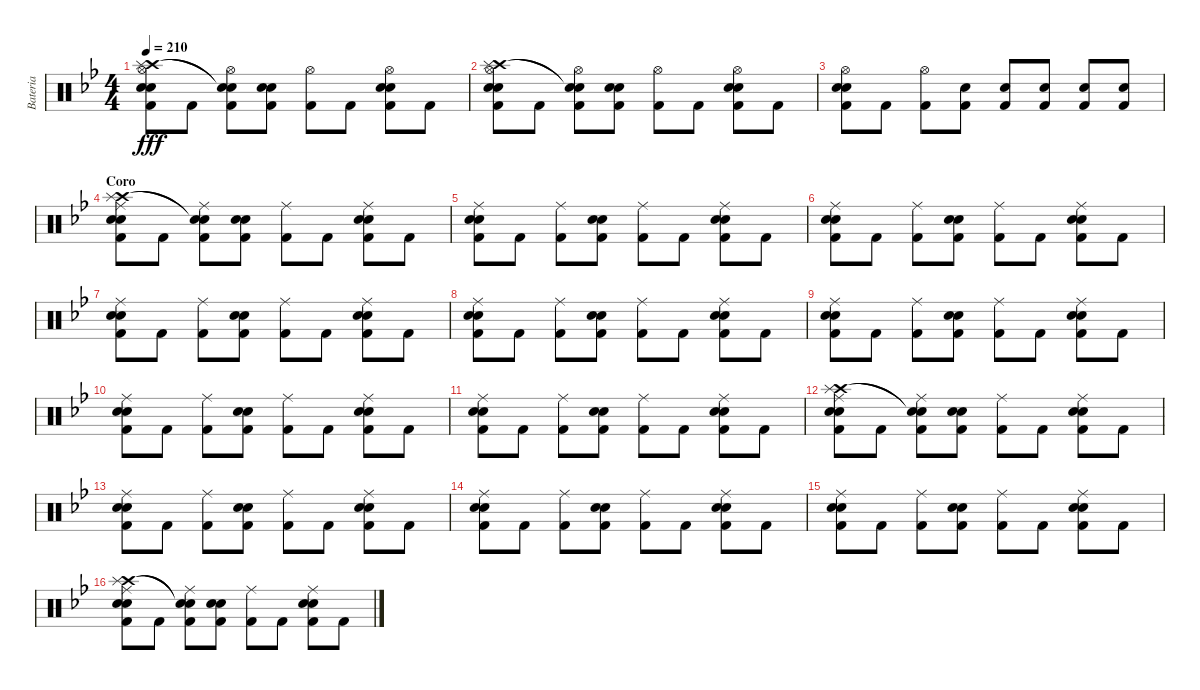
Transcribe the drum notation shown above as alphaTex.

\track ("Bateria" "Bateria") {instrument percussion}
\staff {score}
\articulation defaults
\ts (4 4)
\tempo 210
\clef neutral
\ks gminor
("Hi-Hat (open)" "Crash high (hit)" "Splash (hit)" "Snare (hit) 2" "Kick (hit) 2" "Electric Snare (hit)").8{dy fff} "Kick (hit) 2".8 ("Hi-Hat (open)" "Snare (hit)"{t} "Snare (hit)"{t} "Kick (hit) 2").8 ("Snare (hit) 2" "Kick (hit) 2" "Electric Snare (hit)").8 ("Hi-Hat (open)" "Kick (hit) 2").8 "Kick (hit) 2".8 ("Hi-Hat (open)" "Snare (hit) 2" "Kick (hit) 2" "Electric Snare (hit)").8 "Kick (hit) 2".8 |
("Hi-Hat (open)" "Crash high (hit)" "Splash (hit)" "Snare (hit) 2" "Kick (hit) 2" "Electric Snare (hit)").8 "Kick (hit) 2".8 ("Hi-Hat (open)" "Snare (hit)"{t} "Snare (hit)"{t} "Kick (hit) 2").8 ("Snare (hit) 2" "Kick (hit) 2" "Electric Snare (hit)").8 ("Hi-Hat (open)" "Kick (hit) 2").8 "Kick (hit) 2".8 ("Hi-Hat (open)" "Snare (hit) 2" "Kick (hit) 2" "Electric Snare (hit)").8 "Kick (hit) 2".8 |
("Hi-Hat (open)" "Snare (hit) 2" "Kick (hit) 2" "Electric Snare (hit)").8 "Kick (hit) 2".8 ("Hi-Hat (open)" "Kick (hit) 2").8 ("Snare (hit) 2" "Kick (hit) 2").8 ("Snare (hit) 2" "Kick (hit) 2").8 ("Snare (hit) 2" "Kick (hit) 2").8 ("Snare (hit) 2" "Kick (hit) 2").8 ("Snare (hit) 2" "Kick (hit) 2").8 |
\section ("" "Coro")
("Ride (middle)" "Crash high (hit)" "Splash (hit)" "Snare (hit) 2" "Electric Snare (hit)" "Kick (hit) 2").8 "Kick (hit) 2".8 ("Ride (middle)" "Snare (hit)"{t} "Snare (hit)"{t} "Kick (hit) 2").8 ("Snare (hit) 2" "Electric Snare (hit)" "Kick (hit) 2").8 ("Ride (middle)" "Kick (hit) 2").8 "Kick (hit) 2".8 ("Ride (middle)" "Snare (hit) 2" "Electric Snare (hit)" "Kick (hit) 2").8 "Kick (hit) 2".8 |
("Ride (middle)" "Snare (hit) 2" "Kick (hit) 2" "Electric Snare (hit)").8 "Kick (hit) 2".8 ("Ride (middle)" "Kick (hit) 2").8 ("Snare (hit) 2" "Kick (hit) 2" "Electric Snare (hit)").8 ("Ride (middle)" "Kick (hit) 2").8 "Kick (hit) 2".8 ("Ride (middle)" "Snare (hit) 2" "Kick (hit) 2" "Electric Snare (hit)").8 "Kick (hit) 2".8 |
("Ride (middle)" "Snare (hit) 2" "Kick (hit) 2" "Electric Snare (hit)").8 "Kick (hit) 2".8 ("Ride (middle)" "Kick (hit) 2").8 ("Snare (hit) 2" "Kick (hit) 2" "Electric Snare (hit)").8 ("Ride (middle)" "Kick (hit) 2").8 "Kick (hit) 2".8 ("Ride (middle)" "Snare (hit) 2" "Kick (hit) 2" "Electric Snare (hit)").8 "Kick (hit) 2".8 |
("Ride (middle)" "Snare (hit) 2" "Kick (hit) 2" "Electric Snare (hit)").8 "Kick (hit) 2".8 ("Ride (middle)" "Kick (hit) 2").8 ("Snare (hit) 2" "Kick (hit) 2" "Electric Snare (hit)").8 ("Ride (middle)" "Kick (hit) 2").8 "Kick (hit) 2".8 ("Ride (middle)" "Snare (hit) 2" "Kick (hit) 2" "Electric Snare (hit)").8 "Kick (hit) 2".8 |
("Ride (middle)" "Snare (hit) 2" "Kick (hit) 2" "Electric Snare (hit)").8 "Kick (hit) 2".8 ("Ride (middle)" "Kick (hit) 2").8 ("Snare (hit) 2" "Kick (hit) 2" "Electric Snare (hit)").8 ("Ride (middle)" "Kick (hit) 2").8 "Kick (hit) 2".8 ("Ride (middle)" "Snare (hit) 2" "Kick (hit) 2" "Electric Snare (hit)").8 "Kick (hit) 2".8 |
("Ride (middle)" "Snare (hit) 2" "Kick (hit) 2" "Electric Snare (hit)").8 "Kick (hit) 2".8 ("Ride (middle)" "Kick (hit) 2").8 ("Snare (hit) 2" "Kick (hit) 2" "Electric Snare (hit)").8 ("Ride (middle)" "Kick (hit) 2").8 "Kick (hit) 2".8 ("Ride (middle)" "Snare (hit) 2" "Kick (hit) 2" "Electric Snare (hit)").8 "Kick (hit) 2".8 |
("Ride (middle)" "Snare (hit) 2" "Kick (hit) 2" "Electric Snare (hit)").8 "Kick (hit) 2".8 ("Ride (middle)" "Kick (hit) 2").8 ("Snare (hit) 2" "Kick (hit) 2" "Electric Snare (hit)").8 ("Ride (middle)" "Kick (hit) 2").8 "Kick (hit) 2".8 ("Ride (middle)" "Snare (hit) 2" "Kick (hit) 2" "Electric Snare (hit)").8 "Kick (hit) 2".8 |
("Ride (middle)" "Snare (hit) 2" "Kick (hit) 2" "Electric Snare (hit)").8 "Kick (hit) 2".8 ("Ride (middle)" "Kick (hit) 2").8 ("Snare (hit) 2" "Kick (hit) 2" "Electric Snare (hit)").8 ("Ride (middle)" "Kick (hit) 2").8 "Kick (hit) 2".8 ("Ride (middle)" "Snare (hit) 2" "Kick (hit) 2" "Electric Snare (hit)").8 "Kick (hit) 2".8 |
("Ride (middle)" "Crash high (hit)" "Splash (hit)" "Snare (hit) 2" "Kick (hit) 2" "Electric Snare (hit)").8 "Kick (hit) 2".8 ("Ride (middle)" "Snare (hit)"{t} "Snare (hit)"{t} "Kick (hit) 2").8 ("Snare (hit) 2" "Kick (hit) 2" "Electric Snare (hit)").8 ("Ride (middle)" "Kick (hit) 2").8 "Kick (hit) 2".8 ("Ride (middle)" "Snare (hit) 2" "Kick (hit) 2" "Electric Snare (hit)").8 "Kick (hit) 2".8 |
("Ride (middle)" "Snare (hit) 2" "Kick (hit) 2" "Electric Snare (hit)").8 "Kick (hit) 2".8 ("Ride (middle)" "Kick (hit) 2").8 ("Snare (hit) 2" "Kick (hit) 2" "Electric Snare (hit)").8 ("Ride (middle)" "Kick (hit) 2").8 "Kick (hit) 2".8 ("Ride (middle)" "Snare (hit) 2" "Kick (hit) 2" "Electric Snare (hit)").8 "Kick (hit) 2".8 |
("Ride (middle)" "Snare (hit) 2" "Kick (hit) 2" "Electric Snare (hit)").8 "Kick (hit) 2".8 ("Ride (middle)" "Kick (hit) 2").8 ("Snare (hit) 2" "Kick (hit) 2" "Electric Snare (hit)").8 ("Ride (middle)" "Kick (hit) 2").8 "Kick (hit) 2".8 ("Ride (middle)" "Snare (hit) 2" "Kick (hit) 2" "Electric Snare (hit)").8 "Kick (hit) 2".8 |
("Ride (middle)" "Snare (hit) 2" "Kick (hit) 2" "Electric Snare (hit)").8 "Kick (hit) 2".8 ("Ride (middle)" "Kick (hit) 2").8 ("Snare (hit) 2" "Kick (hit) 2" "Electric Snare (hit)").8 ("Ride (middle)" "Kick (hit) 2").8 "Kick (hit) 2".8 ("Ride (middle)" "Snare (hit) 2" "Kick (hit) 2" "Electric Snare (hit)").8 "Kick (hit) 2".8 |
("Ride (middle)" "Crash high (hit)" "Splash (hit)" "Snare (hit) 2" "Kick (hit) 2" "Electric Snare (hit)").8 "Kick (hit) 2".8 ("Ride (middle)" "Snare (hit)"{t} "Snare (hit)"{t} "Kick (hit) 2").8 ("Snare (hit) 2" "Kick (hit) 2" "Electric Snare (hit)").8 ("Ride (middle)" "Kick (hit) 2").8 "Kick (hit) 2".8 ("Ride (middle)" "Snare (hit) 2" "Kick (hit) 2" "Electric Snare (hit)").8 "Kick (hit) 2".8
